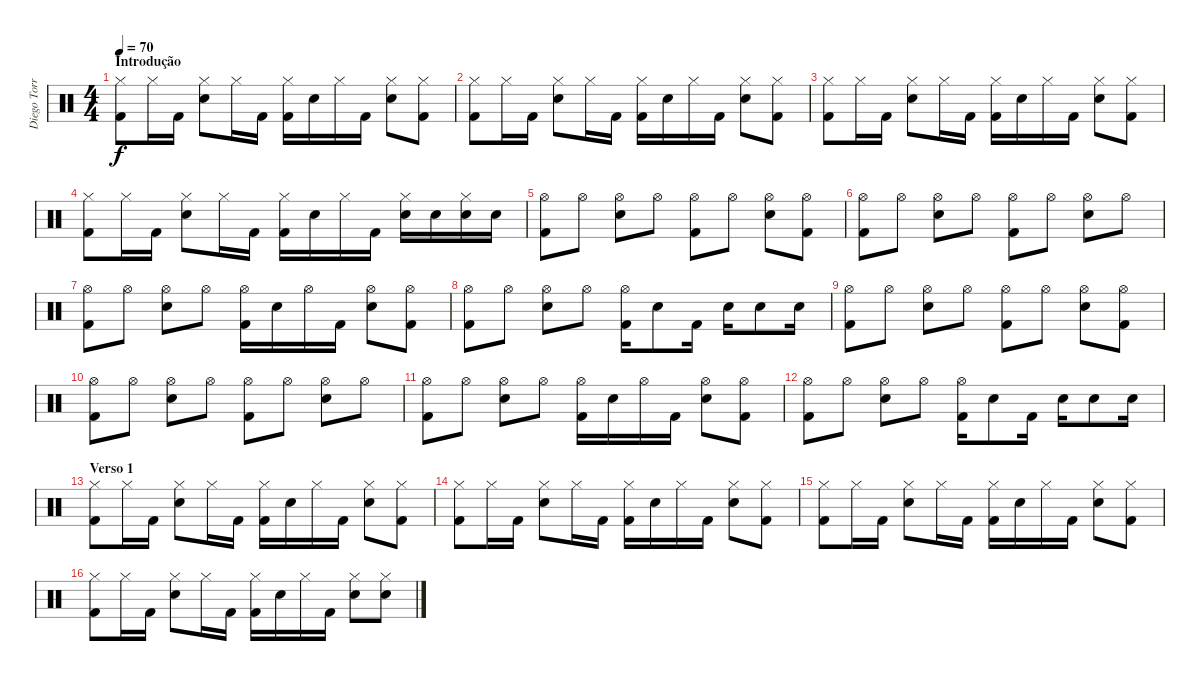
\track ("Diego Torres [Bateria]" "Diego Torr") {instrument percussion}
\staff {score}
\articulation defaults
\ts (4 4)
\section ("" "Introdução")
\tempo 70
\clef neutral
\ks c
("Hi-Hat (closed)" "Kick (hit) 2").8{dy f} "Hi-Hat (closed)".16 "Kick (hit) 2".16 ("Hi-Hat (closed)" "Electric Snare (hit)").8 "Hi-Hat (closed)".16 "Kick (hit) 2".16 ("Hi-Hat (closed)" "Kick (hit) 2").16 "Electric Snare (hit)".16 "Hi-Hat (closed)".16 "Kick (hit) 2".16 ("Hi-Hat (closed)" "Electric Snare (hit)").8 ("Hi-Hat (closed)" "Kick (hit) 2").8 |
("Hi-Hat (closed)" "Kick (hit) 2").8 "Hi-Hat (closed)".16 "Kick (hit) 2".16 ("Hi-Hat (closed)" "Electric Snare (hit)").8 "Hi-Hat (closed)".16 "Kick (hit) 2".16 ("Hi-Hat (closed)" "Kick (hit) 2").16 "Electric Snare (hit)".16 "Hi-Hat (closed)".16 "Kick (hit) 2".16 ("Hi-Hat (closed)" "Electric Snare (hit)").8 ("Hi-Hat (closed)" "Kick (hit) 2").8 |
("Hi-Hat (closed)" "Kick (hit) 2").8 "Hi-Hat (closed)".16 "Kick (hit) 2".16 ("Hi-Hat (closed)" "Electric Snare (hit)").8 "Hi-Hat (closed)".16 "Kick (hit) 2".16 ("Hi-Hat (closed)" "Kick (hit) 2").16 "Electric Snare (hit)".16 "Hi-Hat (closed)".16 "Kick (hit) 2".16 ("Hi-Hat (closed)" "Electric Snare (hit)").8 ("Hi-Hat (closed)" "Kick (hit) 2").8 |
("Hi-Hat (closed)" "Kick (hit) 2").8 "Hi-Hat (closed)".16 "Kick (hit) 2".16 ("Hi-Hat (closed)" "Electric Snare (hit)").8 "Hi-Hat (closed)".16 "Kick (hit) 2".16 ("Hi-Hat (closed)" "Kick (hit) 2").16 "Electric Snare (hit)".16 "Hi-Hat (closed)".16 "Kick (hit) 2".16 ("Hi-Hat (closed)" "Electric Snare (hit)").16 "Electric Snare (hit)".16 ("Hi-Hat (closed)" "Electric Snare (hit)").16 "Electric Snare (hit)".16 |
("Hi-Hat (open)" "Kick (hit) 2").8 "Hi-Hat (open)".8 ("Hi-Hat (open)" "Electric Snare (hit)").8 "Hi-Hat (open)".8 ("Hi-Hat (open)" "Kick (hit) 2").8 "Hi-Hat (open)".8 ("Hi-Hat (open)" "Electric Snare (hit)").8 ("Hi-Hat (open)" "Kick (hit) 2").8 |
("Hi-Hat (open)" "Kick (hit) 2").8 "Hi-Hat (open)".8 ("Hi-Hat (open)" "Electric Snare (hit)").8 "Hi-Hat (open)".8 ("Hi-Hat (open)" "Kick (hit) 2").8 "Hi-Hat (open)".8 ("Hi-Hat (open)" "Electric Snare (hit)").8 "Hi-Hat (open)".8 |
("Hi-Hat (open)" "Kick (hit) 2").8 "Hi-Hat (open)".8 ("Hi-Hat (open)" "Electric Snare (hit)").8 "Hi-Hat (open)".8 ("Hi-Hat (open)" "Kick (hit) 2").16 "Electric Snare (hit)".16 "Hi-Hat (open)".16 "Kick (hit) 2".16 ("Hi-Hat (open)" "Electric Snare (hit)").8 ("Hi-Hat (open)" "Kick (hit) 2").8 |
("Hi-Hat (open)" "Kick (hit) 2").8 "Hi-Hat (open)".8 ("Hi-Hat (open)" "Electric Snare (hit)").8 "Hi-Hat (open)".8 ("Hi-Hat (open)" "Kick (hit) 2").16 "Electric Snare (hit)".8 "Kick (hit) 2".16 "Electric Snare (hit)".16 "Electric Snare (hit)".8 "Electric Snare (hit)".16 |
("Hi-Hat (open)" "Kick (hit) 2").8 "Hi-Hat (open)".8 ("Hi-Hat (open)" "Electric Snare (hit)").8 "Hi-Hat (open)".8 ("Hi-Hat (open)" "Kick (hit) 2").8 "Hi-Hat (open)".8 ("Hi-Hat (open)" "Electric Snare (hit)").8 ("Hi-Hat (open)" "Kick (hit) 2").8 |
("Hi-Hat (open)" "Kick (hit) 2").8 "Hi-Hat (open)".8 ("Hi-Hat (open)" "Electric Snare (hit)").8 "Hi-Hat (open)".8 ("Hi-Hat (open)" "Kick (hit) 2").8 "Hi-Hat (open)".8 ("Hi-Hat (open)" "Electric Snare (hit)").8 "Hi-Hat (open)".8 |
("Hi-Hat (open)" "Kick (hit) 2").8 "Hi-Hat (open)".8 ("Hi-Hat (open)" "Electric Snare (hit)").8 "Hi-Hat (open)".8 ("Hi-Hat (open)" "Kick (hit) 2").16 "Electric Snare (hit)".16 "Hi-Hat (open)".16 "Kick (hit) 2".16 ("Hi-Hat (open)" "Electric Snare (hit)").8 ("Hi-Hat (open)" "Kick (hit) 2").8 |
("Hi-Hat (open)" "Kick (hit) 2").8 "Hi-Hat (open)".8 ("Hi-Hat (open)" "Electric Snare (hit)").8 "Hi-Hat (open)".8 ("Hi-Hat (open)" "Kick (hit) 2").16 "Electric Snare (hit)".8 "Kick (hit) 2".16 "Electric Snare (hit)".16 "Electric Snare (hit)".8 "Electric Snare (hit)".16 |
\section ("" "Verso 1")
("Hi-Hat (closed)" "Kick (hit) 2").8 "Hi-Hat (closed)".16 "Kick (hit) 2".16 ("Hi-Hat (closed)" "Electric Snare (hit)").8 "Hi-Hat (closed)".16 "Kick (hit) 2".16 ("Hi-Hat (closed)" "Kick (hit) 2").16 "Electric Snare (hit)".16 "Hi-Hat (closed)".16 "Kick (hit) 2".16 ("Hi-Hat (closed)" "Electric Snare (hit)").8 ("Hi-Hat (closed)" "Kick (hit) 2").8 |
("Hi-Hat (closed)" "Kick (hit) 2").8 "Hi-Hat (closed)".16 "Kick (hit) 2".16 ("Hi-Hat (closed)" "Electric Snare (hit)").8 "Hi-Hat (closed)".16 "Kick (hit) 2".16 ("Hi-Hat (closed)" "Kick (hit) 2").16 "Electric Snare (hit)".16 "Hi-Hat (closed)".16 "Kick (hit) 2".16 ("Hi-Hat (closed)" "Electric Snare (hit)").8 ("Hi-Hat (closed)" "Kick (hit) 2").8 |
("Hi-Hat (closed)" "Kick (hit) 2").8 "Hi-Hat (closed)".16 "Kick (hit) 2".16 ("Hi-Hat (closed)" "Electric Snare (hit)").8 "Hi-Hat (closed)".16 "Kick (hit) 2".16 ("Hi-Hat (closed)" "Kick (hit) 2").16 "Electric Snare (hit)".16 "Hi-Hat (closed)".16 "Kick (hit) 2".16 ("Hi-Hat (closed)" "Electric Snare (hit)").8 ("Hi-Hat (closed)" "Kick (hit) 2").8 |
("Hi-Hat (closed)" "Kick (hit) 2").8 "Hi-Hat (closed)".16 "Kick (hit) 2".16 ("Hi-Hat (closed)" "Electric Snare (hit)").8 "Hi-Hat (closed)".16 "Kick (hit) 2".16 ("Hi-Hat (closed)" "Kick (hit) 2").16 "Electric Snare (hit)".16 "Hi-Hat (closed)".16 "Kick (hit) 2".16 ("Hi-Hat (closed)" "Electric Snare (hit)").8 ("Hi-Hat (closed)" "Electric Snare (hit)").8
